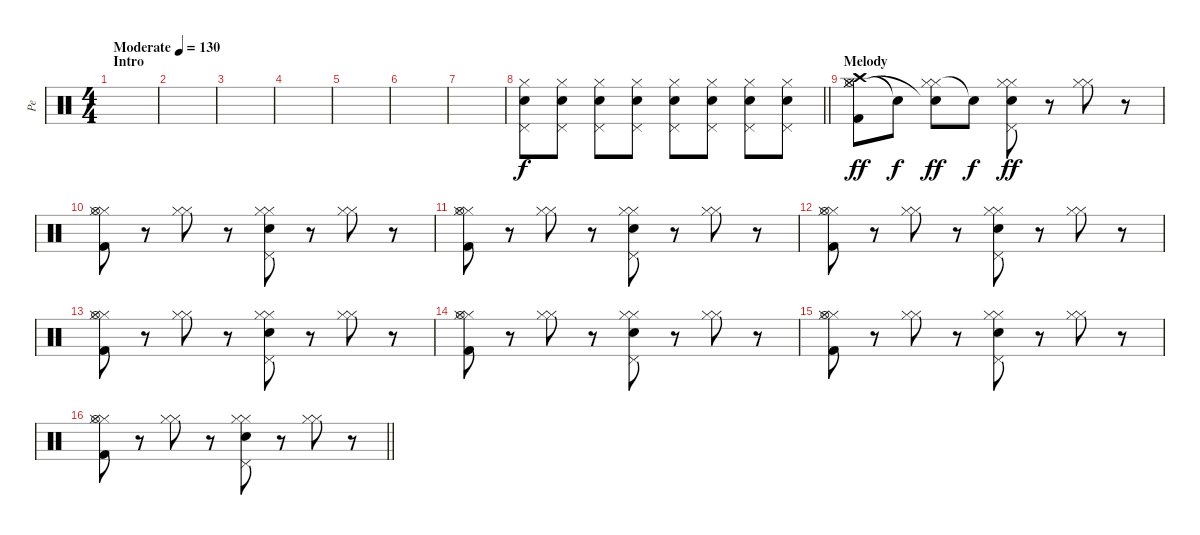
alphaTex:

\track ("Pe" "Pe") {instrument percussion}
\staff {score}
\articulation defaults
\ts (4 4)
\section ("" "Intro")
\tempo (130 "Moderate")
\clef neutral
\ks c
|
|
|
|
|
|
|
\barLineRight lightlight
("Hi-Hat (closed)" "Electric Snare (hit)" "Pedal Hi-Hat (hit)").8{volume 6} ("Hi-Hat (closed)" "Electric Snare (hit)" "Pedal Hi-Hat (hit)").8{volume 7} ("Hi-Hat (closed)" "Electric Snare (hit)" "Pedal Hi-Hat (hit)").8{volume 8} ("Hi-Hat (closed)" "Electric Snare (hit)" "Pedal Hi-Hat (hit)").8{volume 9} ("Hi-Hat (closed)" "Electric Snare (hit)" "Pedal Hi-Hat (hit)").8{volume 10} ("Hi-Hat (closed)" "Electric Snare (hit)" "Pedal Hi-Hat (hit)").8{volume 11} ("Hi-Hat (closed)" "Electric Snare (hit)" "Pedal Hi-Hat (hit)").8{volume 12} ("Hi-Hat (closed)" "Electric Snare (hit)" "Pedal Hi-Hat (hit)").8{volume 13} |
\section ("" "Melody")
("Hi-Hat (closed)" "Hi-Hat (closed)" "Hi-Hat (open)" "Crash high (hit)" "Kick (hit) 2").8{dy ff volume 12} "Snare (hit)"{t}.8{dy f} ("Hi-Hat (closed)" "Hi-Hat (closed)" "Snare (hit)"{t}).8{dy ff} "Snare (hit)"{t}.8{dy f} ("Hi-Hat (closed)" "Hi-Hat (closed)" "Pedal Hi-Hat (hit)" "Electric Snare (hit)").8{dy ff} r.8 ("Hi-Hat (closed)" "Hi-Hat (closed)").8 r.8 |
("Hi-Hat (closed)" "Hi-Hat (closed)" "Hi-Hat (open)" "Kick (hit) 2").8 r.8 ("Hi-Hat (closed)" "Hi-Hat (closed)").8 r.8 ("Hi-Hat (closed)" "Hi-Hat (closed)" "Pedal Hi-Hat (hit)" "Electric Snare (hit)").8 r.8 ("Hi-Hat (closed)" "Hi-Hat (closed)").8 r.8 |
("Hi-Hat (closed)" "Hi-Hat (closed)" "Hi-Hat (open)" "Kick (hit) 2").8 r.8 ("Hi-Hat (closed)" "Hi-Hat (closed)").8 r.8 ("Hi-Hat (closed)" "Hi-Hat (closed)" "Pedal Hi-Hat (hit)" "Electric Snare (hit)").8 r.8 ("Hi-Hat (closed)" "Hi-Hat (closed)").8 r.8 |
("Hi-Hat (closed)" "Hi-Hat (closed)" "Hi-Hat (open)" "Kick (hit) 2").8 r.8 ("Hi-Hat (closed)" "Hi-Hat (closed)").8 r.8 ("Hi-Hat (closed)" "Hi-Hat (closed)" "Pedal Hi-Hat (hit)" "Electric Snare (hit)").8 r.8 ("Hi-Hat (closed)" "Hi-Hat (closed)").8 r.8 |
("Hi-Hat (closed)" "Hi-Hat (closed)" "Hi-Hat (open)" "Kick (hit) 2").8 r.8 ("Hi-Hat (closed)" "Hi-Hat (closed)").8 r.8 ("Hi-Hat (closed)" "Hi-Hat (closed)" "Pedal Hi-Hat (hit)" "Electric Snare (hit)").8 r.8 ("Hi-Hat (closed)" "Hi-Hat (closed)").8 r.8 |
("Hi-Hat (closed)" "Hi-Hat (closed)" "Hi-Hat (open)" "Kick (hit) 2").8 r.8 ("Hi-Hat (closed)" "Hi-Hat (closed)").8 r.8 ("Hi-Hat (closed)" "Hi-Hat (closed)" "Pedal Hi-Hat (hit)" "Electric Snare (hit)").8 r.8 ("Hi-Hat (closed)" "Hi-Hat (closed)").8 r.8 |
("Hi-Hat (closed)" "Hi-Hat (closed)" "Hi-Hat (open)" "Kick (hit) 2").8 r.8 ("Hi-Hat (closed)" "Hi-Hat (closed)").8 r.8 ("Hi-Hat (closed)" "Hi-Hat (closed)" "Pedal Hi-Hat (hit)" "Electric Snare (hit)").8 r.8 ("Hi-Hat (closed)" "Hi-Hat (closed)").8 r.8 |
\barLineRight lightlight
("Hi-Hat (closed)" "Hi-Hat (closed)" "Hi-Hat (open)" "Kick (hit) 2").8 r.8 ("Hi-Hat (closed)" "Hi-Hat (closed)").8 r.8 ("Hi-Hat (closed)" "Hi-Hat (closed)" "Pedal Hi-Hat (hit)" "Electric Snare (hit)").8 r.8 ("Hi-Hat (closed)" "Hi-Hat (closed)").8 r.8
